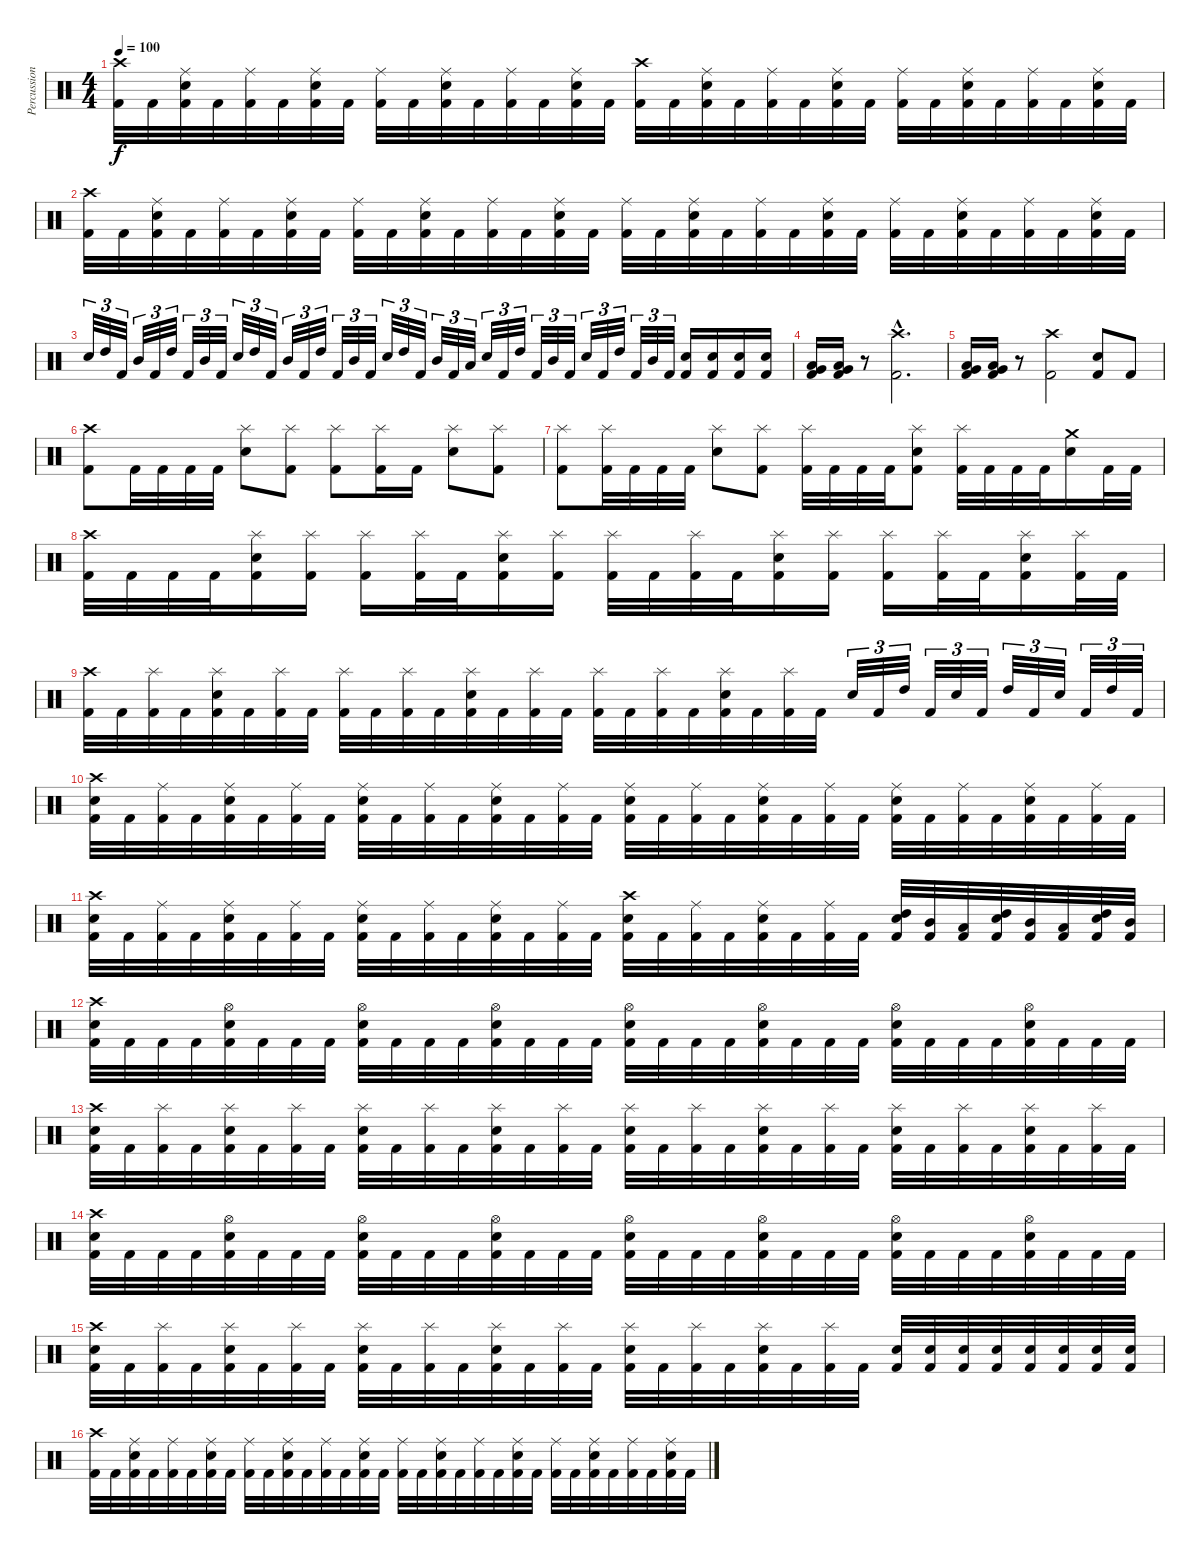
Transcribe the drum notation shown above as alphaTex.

\track ("Percussion" "Percussion") {instrument percussion}
\staff {score}
\articulation defaults
\ts (4 4)
\tempo 100
\clef neutral
\ks c
("Crash high (hit)" "Kick (hit) 2").32{dy f} "Kick (hit) 2".32 ("Ride (middle)" "Electric Snare (hit)" "Kick (hit) 2").32 "Kick (hit) 2".32 ("Ride (middle)" "Kick (hit) 2").32 "Kick (hit) 2".32 ("Ride (middle)" "Electric Snare (hit)" "Kick (hit) 2").32 "Kick (hit) 2".32 ("Ride (middle)" "Kick (hit) 2").32 "Kick (hit) 2".32 ("Ride (middle)" "Electric Snare (hit)" "Kick (hit) 2").32 "Kick (hit) 2".32 ("Ride (middle)" "Kick (hit) 2").32 "Kick (hit) 2".32 ("Ride (middle)" "Electric Snare (hit)" "Kick (hit) 2").32 "Kick (hit) 2".32 ("Crash high (hit)" "Kick (hit) 2").32 "Kick (hit) 2".32 ("Ride (middle)" "Electric Snare (hit)" "Kick (hit) 2").32 "Kick (hit) 2".32 ("Ride (middle)" "Kick (hit) 2").32 "Kick (hit) 2".32 ("Ride (middle)" "Electric Snare (hit)" "Kick (hit) 2").32 "Kick (hit) 2".32 ("Ride (middle)" "Kick (hit) 2").32 "Kick (hit) 2".32 ("Ride (middle)" "Electric Snare (hit)" "Kick (hit) 2").32 "Kick (hit) 2".32 ("Ride (middle)" "Kick (hit) 2").32 "Kick (hit) 2".32 ("Ride (middle)" "Electric Snare (hit)" "Kick (hit) 2").32 "Kick (hit) 2".32 |
("Crash high (hit)" "Kick (hit) 2").32 "Kick (hit) 2".32 ("Ride (middle)" "Electric Snare (hit)" "Kick (hit) 2").32 "Kick (hit) 2".32 ("Ride (middle)" "Kick (hit) 2").32 "Kick (hit) 2".32 ("Ride (middle)" "Electric Snare (hit)" "Kick (hit) 2").32 "Kick (hit) 2".32 ("Ride (middle)" "Kick (hit) 2").32 "Kick (hit) 2".32 ("Ride (middle)" "Electric Snare (hit)" "Kick (hit) 2").32 "Kick (hit) 2".32 ("Ride (middle)" "Kick (hit) 2").32 "Kick (hit) 2".32 ("Ride (middle)" "Electric Snare (hit)" "Kick (hit) 2").32 "Kick (hit) 2".32 ("Ride (middle)" "Kick (hit) 2").32 "Kick (hit) 2".32 ("Ride (middle)" "Electric Snare (hit)" "Kick (hit) 2").32 "Kick (hit) 2".32 ("Ride (middle)" "Kick (hit) 2").32 "Kick (hit) 2".32 ("Ride (middle)" "Electric Snare (hit)" "Kick (hit) 2").32 "Kick (hit) 2".32 ("Ride (middle)" "Kick (hit) 2").32 "Kick (hit) 2".32 ("Ride (middle)" "Electric Snare (hit)" "Kick (hit) 2").32 "Kick (hit) 2".32 ("Ride (middle)" "Kick (hit) 2").32 "Kick (hit) 2".32 ("Ride (middle)" "Electric Snare (hit)" "Kick (hit) 2").32 "Kick (hit) 2".32 |
"Electric Snare (hit)".32{tu (3 2)} "High Tom (hit)".32{tu (3 2)} "Kick (hit) 2".32{tu (3 2)} "Mid Tom (hit)".32{tu (3 2)} "Kick (hit) 2".32{tu (3 2)} "High Tom (hit)".32{tu (3 2)} "Kick (hit) 2".32{tu (3 2)} "Mid Tom (hit)".32{tu (3 2)} "Kick (hit) 2".32{tu (3 2)} "Electric Snare (hit)".32{tu (3 2)} "High Tom (hit)".32{tu (3 2)} "Kick (hit) 2".32{tu (3 2)} "Mid Tom (hit)".32{tu (3 2)} "Kick (hit) 2".32{tu (3 2)} "High Tom (hit)".32{tu (3 2)} "Kick (hit) 2".32{tu (3 2)} "Mid Tom (hit)".32{tu (3 2)} "Kick (hit) 2".32{tu (3 2)} "Electric Snare (hit)".32{tu (3 2)} "High Tom (hit)".32{tu (3 2)} "Kick (hit) 2".32{tu (3 2)} "Mid Tom (hit)".32{tu (3 2)} "Kick (hit) 2".32{tu (3 2)} "Low Tom (hit)".32{tu (3 2)} "Electric Snare (hit)".32{tu (3 2)} "Kick (hit) 2".32{tu (3 2)} "High Tom (hit)".32{tu (3 2)} "Kick (hit) 2".32{tu (3 2)} "Mid Tom (hit)".32{tu (3 2)} "Kick (hit) 2".32{tu (3 2)} "Electric Snare (hit)".32{tu (3 2)} "Kick (hit) 2".32{tu (3 2)} "High Tom (hit)".32{tu (3 2)} "Kick (hit) 2".32{tu (3 2)} "Mid Tom (hit)".32{tu (3 2)} "Kick (hit) 2".32{tu (3 2)} ("Electric Snare (hit)" "Kick (hit) 2").16 ("Electric Snare (hit)" "Kick (hit) 2").16 ("Electric Snare (hit)" "Kick (hit) 2").16 ("Electric Snare (hit)" "Kick (hit) 2").16 |
("Low Tom (hit)" "Very Low Tom (hit)" "Kick (hit) 2").16 ("Low Tom (hit)" "Very Low Tom (hit)" "Kick (hit) 2").16 r.8 ("Crash high (hit)"{hac} "Kick (hit) 2"{hac}).2{d} |
("Low Tom (hit)" "Very Low Tom (hit)" "Kick (hit) 2").16 ("Low Tom (hit)" "Very Low Tom (hit)" "Kick (hit) 2").16 r.8 ("Crash high (hit)" "Kick (hit) 2").2 ("Electric Snare (hit)" "Kick (hit) 2").8 "Kick (hit) 2".8 |
("Crash high (hit)" "Kick (hit) 2").8 "Kick (hit) 2".32 "Kick (hit) 2".32 "Kick (hit) 2".32 "Kick (hit) 2".32 ("Splash (hit)" "Electric Snare (hit)").8 ("Splash (hit)" "Kick (hit) 2").8 ("Splash (hit)" "Kick (hit) 2").8 ("Splash (hit)" "Kick (hit) 2").16 "Kick (hit) 2".16 ("Splash (hit)" "Electric Snare (hit)").8 ("Splash (hit)" "Kick (hit) 2").8 |
("Splash (hit)" "Kick (hit) 2").8 ("Splash (hit)" "Kick (hit) 2").32 "Kick (hit) 2".32 "Kick (hit) 2".32 "Kick (hit) 2".32 ("Splash (hit)" "Electric Snare (hit)").8 ("Splash (hit)" "Kick (hit) 2").8 ("Splash (hit)" "Kick (hit) 2").32 "Kick (hit) 2".32 "Kick (hit) 2".32 "Kick (hit) 2".32 ("Splash (hit)" "Electric Snare (hit)" "Kick (hit) 2").8 ("Splash (hit)" "Kick (hit) 2").32 "Kick (hit) 2".32 "Kick (hit) 2".32 "Kick (hit) 2".32 ("Crash medium (hit)" "Electric Snare (hit)").16 "Kick (hit) 2".32 "Kick (hit) 2".32 |
("Crash high (hit)" "Kick (hit) 2").32 "Kick (hit) 2".32 "Kick (hit) 2".32 "Kick (hit) 2".32 ("Splash (hit)" "Electric Snare (hit)" "Kick (hit) 2").16 ("Splash (hit)" "Kick (hit) 2").16 ("Splash (hit)" "Kick (hit) 2").16 ("Splash (hit)" "Kick (hit) 2").32 "Kick (hit) 2".32 ("Splash (hit)" "Electric Snare (hit)" "Kick (hit) 2").16 ("Splash (hit)" "Kick (hit) 2").16 ("Splash (hit)" "Kick (hit) 2").32 "Kick (hit) 2".32 ("Splash (hit)" "Kick (hit) 2").32 "Kick (hit) 2".32 ("Splash (hit)" "Electric Snare (hit)" "Kick (hit) 2").16 ("Splash (hit)" "Kick (hit) 2").16 ("Splash (hit)" "Kick (hit) 2").16 ("Splash (hit)" "Kick (hit) 2").32 "Kick (hit) 2".32 ("Splash (hit)" "Electric Snare (hit)" "Kick (hit) 2").16 ("Splash (hit)" "Kick (hit) 2").32 "Kick (hit) 2".32 |
("Crash high (hit)" "Kick (hit) 2").32 "Kick (hit) 2".32 ("Splash (hit)" "Kick (hit) 2").32 "Kick (hit) 2".32 ("Splash (hit)" "Electric Snare (hit)" "Kick (hit) 2").32 "Kick (hit) 2".32 ("Splash (hit)" "Kick (hit) 2").32 "Kick (hit) 2".32 ("Splash (hit)" "Kick (hit) 2").32 "Kick (hit) 2".32 ("Splash (hit)" "Kick (hit) 2").32 "Kick (hit) 2".32 ("Splash (hit)" "Electric Snare (hit)" "Kick (hit) 2").32 "Kick (hit) 2".32 ("Splash (hit)" "Kick (hit) 2").32 "Kick (hit) 2".32 ("Splash (hit)" "Kick (hit) 2").32 "Kick (hit) 2".32 ("Splash (hit)" "Kick (hit) 2").32 "Kick (hit) 2".32 ("Splash (hit)" "Electric Snare (hit)" "Kick (hit) 2").32 "Kick (hit) 2".32 ("Splash (hit)" "Kick (hit) 2").32 "Kick (hit) 2".32 "Electric Snare (hit)".32{tu (3 2)} "Kick (hit) 2".32{tu (3 2)} "High Tom (hit)".32{tu (3 2)} "Kick (hit) 2".32{tu (3 2)} "Electric Snare (hit)".32{tu (3 2)} "Kick (hit) 2".32{tu (3 2)} "High Tom (hit)".32{tu (3 2)} "Kick (hit) 2".32{tu (3 2)} "Electric Snare (hit)".32{tu (3 2)} "Kick (hit) 2".32{tu (3 2)} "High Tom (hit)".32{tu (3 2)} "Kick (hit) 2".32{tu (3 2)} |
("Crash high (hit)" "Electric Snare (hit)" "Kick (hit) 2").32 "Kick (hit) 2".32 ("Ride (middle)" "Kick (hit) 2").32 "Kick (hit) 2".32 ("Ride (middle)" "Electric Snare (hit)" "Kick (hit) 2").32 "Kick (hit) 2".32 ("Ride (middle)" "Kick (hit) 2").32 "Kick (hit) 2".32 ("Ride (middle)" "Electric Snare (hit)" "Kick (hit) 2").32 "Kick (hit) 2".32 ("Ride (middle)" "Kick (hit) 2").32 "Kick (hit) 2".32 ("Ride (middle)" "Electric Snare (hit)" "Kick (hit) 2").32 "Kick (hit) 2".32 ("Ride (middle)" "Kick (hit) 2").32 "Kick (hit) 2".32 ("Ride (middle)" "Electric Snare (hit)" "Kick (hit) 2").32 "Kick (hit) 2".32 ("Ride (middle)" "Kick (hit) 2").32 "Kick (hit) 2".32 ("Ride (middle)" "Electric Snare (hit)" "Kick (hit) 2").32 "Kick (hit) 2".32 ("Ride (middle)" "Kick (hit) 2").32 "Kick (hit) 2".32 ("Ride (middle)" "Electric Snare (hit)" "Kick (hit) 2").32 "Kick (hit) 2".32 ("Ride (middle)" "Kick (hit) 2").32 "Kick (hit) 2".32 ("Ride (middle)" "Electric Snare (hit)" "Kick (hit) 2").32 "Kick (hit) 2".32 ("Ride (middle)" "Kick (hit) 2").32 "Kick (hit) 2".32 |
("Crash high (hit)" "Electric Snare (hit)" "Kick (hit) 2").32 "Kick (hit) 2".32 ("Ride (middle)" "Kick (hit) 2").32 "Kick (hit) 2".32 ("Ride (middle)" "Electric Snare (hit)" "Kick (hit) 2").32 "Kick (hit) 2".32 ("Ride (middle)" "Kick (hit) 2").32 "Kick (hit) 2".32 ("Ride (middle)" "Electric Snare (hit)" "Kick (hit) 2").32 "Kick (hit) 2".32 ("Ride (middle)" "Kick (hit) 2").32 "Kick (hit) 2".32 ("Ride (middle)" "Electric Snare (hit)" "Kick (hit) 2").32 "Kick (hit) 2".32 ("Ride (middle)" "Kick (hit) 2").32 "Kick (hit) 2".32 ("Crash high (hit)" "Electric Snare (hit)" "Kick (hit) 2").32 "Kick (hit) 2".32 ("Ride (middle)" "Kick (hit) 2").32 "Kick (hit) 2".32 ("Ride (middle)" "Electric Snare (hit)" "Kick (hit) 2").32 "Kick (hit) 2".32 ("Ride (middle)" "Kick (hit) 2").32 "Kick (hit) 2".32 ("High Tom (hit)" "Electric Snare (hit)" "Kick (hit) 2").32 ("Mid Tom (hit)" "Kick (hit) 2").32 ("Low Tom (hit)" "Kick (hit) 2").32 ("High Tom (hit)" "Electric Snare (hit)" "Kick (hit) 2").32 ("Mid Tom (hit)" "Kick (hit) 2").32 ("Low Tom (hit)" "Kick (hit) 2").32 ("High Tom (hit)" "Electric Snare (hit)" "Kick (hit) 2").32 ("Mid Tom (hit)" "Kick (hit) 2").32 |
("Crash high (hit)" "Electric Snare (hit)" "Kick (hit) 2").32 "Kick (hit) 2".32 "Kick (hit) 2".32 "Kick (hit) 2".32 ("Hi-Hat (open)" "Electric Snare (hit)" "Kick (hit) 2").32 "Kick (hit) 2".32 "Kick (hit) 2".32 "Kick (hit) 2".32 ("Hi-Hat (open)" "Electric Snare (hit)" "Kick (hit) 2").32 "Kick (hit) 2".32 "Kick (hit) 2".32 "Kick (hit) 2".32 ("Hi-Hat (open)" "Electric Snare (hit)" "Kick (hit) 2").32 "Kick (hit) 2".32 "Kick (hit) 2".32 "Kick (hit) 2".32 ("Hi-Hat (open)" "Electric Snare (hit)" "Kick (hit) 2").32 "Kick (hit) 2".32 "Kick (hit) 2".32 "Kick (hit) 2".32 ("Hi-Hat (open)" "Electric Snare (hit)" "Kick (hit) 2").32 "Kick (hit) 2".32 "Kick (hit) 2".32 "Kick (hit) 2".32 ("Hi-Hat (open)" "Electric Snare (hit)" "Kick (hit) 2").32 "Kick (hit) 2".32 "Kick (hit) 2".32 "Kick (hit) 2".32 ("Hi-Hat (open)" "Electric Snare (hit)" "Kick (hit) 2").32 "Kick (hit) 2".32 "Kick (hit) 2".32 "Kick (hit) 2".32 |
("Crash high (hit)" "Electric Snare (hit)" "Kick (hit) 2").32 "Kick (hit) 2".32 ("Splash (hit)" "Kick (hit) 2").32 "Kick (hit) 2".32 ("Splash (hit)" "Electric Snare (hit)" "Kick (hit) 2").32 "Kick (hit) 2".32 ("Splash (hit)" "Kick (hit) 2").32 "Kick (hit) 2".32 ("Splash (hit)" "Electric Snare (hit)" "Kick (hit) 2").32 "Kick (hit) 2".32 ("Splash (hit)" "Kick (hit) 2").32 "Kick (hit) 2".32 ("Splash (hit)" "Electric Snare (hit)" "Kick (hit) 2").32 "Kick (hit) 2".32 ("Splash (hit)" "Kick (hit) 2").32 "Kick (hit) 2".32 ("Splash (hit)" "Electric Snare (hit)" "Kick (hit) 2").32 "Kick (hit) 2".32 ("Splash (hit)" "Kick (hit) 2").32 "Kick (hit) 2".32 ("Splash (hit)" "Electric Snare (hit)" "Kick (hit) 2").32 "Kick (hit) 2".32 ("Splash (hit)" "Kick (hit) 2").32 "Kick (hit) 2".32 ("Splash (hit)" "Electric Snare (hit)" "Kick (hit) 2").32 "Kick (hit) 2".32 ("Splash (hit)" "Kick (hit) 2").32 "Kick (hit) 2".32 ("Splash (hit)" "Electric Snare (hit)" "Kick (hit) 2").32 "Kick (hit) 2".32 ("Splash (hit)" "Kick (hit) 2").32 "Kick (hit) 2".32 |
("Crash high (hit)" "Electric Snare (hit)" "Kick (hit) 2").32 "Kick (hit) 2".32 "Kick (hit) 2".32 "Kick (hit) 2".32 ("Hi-Hat (open)" "Electric Snare (hit)" "Kick (hit) 2").32 "Kick (hit) 2".32 "Kick (hit) 2".32 "Kick (hit) 2".32 ("Hi-Hat (open)" "Electric Snare (hit)" "Kick (hit) 2").32 "Kick (hit) 2".32 "Kick (hit) 2".32 "Kick (hit) 2".32 ("Hi-Hat (open)" "Electric Snare (hit)" "Kick (hit) 2").32 "Kick (hit) 2".32 "Kick (hit) 2".32 "Kick (hit) 2".32 ("Hi-Hat (open)" "Electric Snare (hit)" "Kick (hit) 2").32 "Kick (hit) 2".32 "Kick (hit) 2".32 "Kick (hit) 2".32 ("Hi-Hat (open)" "Electric Snare (hit)" "Kick (hit) 2").32 "Kick (hit) 2".32 "Kick (hit) 2".32 "Kick (hit) 2".32 ("Hi-Hat (open)" "Electric Snare (hit)" "Kick (hit) 2").32 "Kick (hit) 2".32 "Kick (hit) 2".32 "Kick (hit) 2".32 ("Hi-Hat (open)" "Electric Snare (hit)" "Kick (hit) 2").32 "Kick (hit) 2".32 "Kick (hit) 2".32 "Kick (hit) 2".32 |
("Crash high (hit)" "Electric Snare (hit)" "Kick (hit) 2").32 "Kick (hit) 2".32 ("Splash (hit)" "Kick (hit) 2").32 "Kick (hit) 2".32 ("Splash (hit)" "Electric Snare (hit)" "Kick (hit) 2").32 "Kick (hit) 2".32 ("Splash (hit)" "Kick (hit) 2").32 "Kick (hit) 2".32 ("Splash (hit)" "Electric Snare (hit)" "Kick (hit) 2").32 "Kick (hit) 2".32 ("Splash (hit)" "Kick (hit) 2").32 "Kick (hit) 2".32 ("Splash (hit)" "Electric Snare (hit)" "Kick (hit) 2").32 "Kick (hit) 2".32 ("Splash (hit)" "Kick (hit) 2").32 "Kick (hit) 2".32 ("Splash (hit)" "Electric Snare (hit)" "Kick (hit) 2").32 "Kick (hit) 2".32 ("Splash (hit)" "Kick (hit) 2").32 "Kick (hit) 2".32 ("Splash (hit)" "Electric Snare (hit)" "Kick (hit) 2").32 "Kick (hit) 2".32 ("Splash (hit)" "Kick (hit) 2").32 "Kick (hit) 2".32 ("Electric Snare (hit)" "Kick (hit) 2").32 ("Electric Snare (hit)" "Kick (hit) 2").32 ("Electric Snare (hit)" "Kick (hit) 2").32 ("Electric Snare (hit)" "Kick (hit) 2").32 ("Electric Snare (hit)" "Kick (hit) 2").32 ("Electric Snare (hit)" "Kick (hit) 2").32 ("Electric Snare (hit)" "Kick (hit) 2").32 ("Electric Snare (hit)" "Kick (hit) 2").32 |
("Crash high (hit)" "Kick (hit) 2").32 "Kick (hit) 2".32 ("Ride (middle)" "Electric Snare (hit)" "Kick (hit) 2").32 "Kick (hit) 2".32 ("Ride (middle)" "Kick (hit) 2").32 "Kick (hit) 2".32 ("Ride (middle)" "Electric Snare (hit)" "Kick (hit) 2").32 "Kick (hit) 2".32 ("Ride (middle)" "Kick (hit) 2").32 "Kick (hit) 2".32 ("Ride (middle)" "Electric Snare (hit)" "Kick (hit) 2").32 "Kick (hit) 2".32 ("Ride (middle)" "Kick (hit) 2").32 "Kick (hit) 2".32 ("Ride (middle)" "Electric Snare (hit)" "Kick (hit) 2").32 "Kick (hit) 2".32 ("Ride (middle)" "Kick (hit) 2").32 "Kick (hit) 2".32 ("Ride (middle)" "Electric Snare (hit)" "Kick (hit) 2").32 "Kick (hit) 2".32 ("Ride (middle)" "Kick (hit) 2").32 "Kick (hit) 2".32 ("Ride (middle)" "Electric Snare (hit)" "Kick (hit) 2").32 "Kick (hit) 2".32 ("Ride (middle)" "Kick (hit) 2").32 "Kick (hit) 2".32 ("Ride (middle)" "Electric Snare (hit)" "Kick (hit) 2").32 "Kick (hit) 2".32 ("Ride (middle)" "Kick (hit) 2").32 "Kick (hit) 2".32 ("Ride (middle)" "Electric Snare (hit)" "Kick (hit) 2").32 "Kick (hit) 2".32
